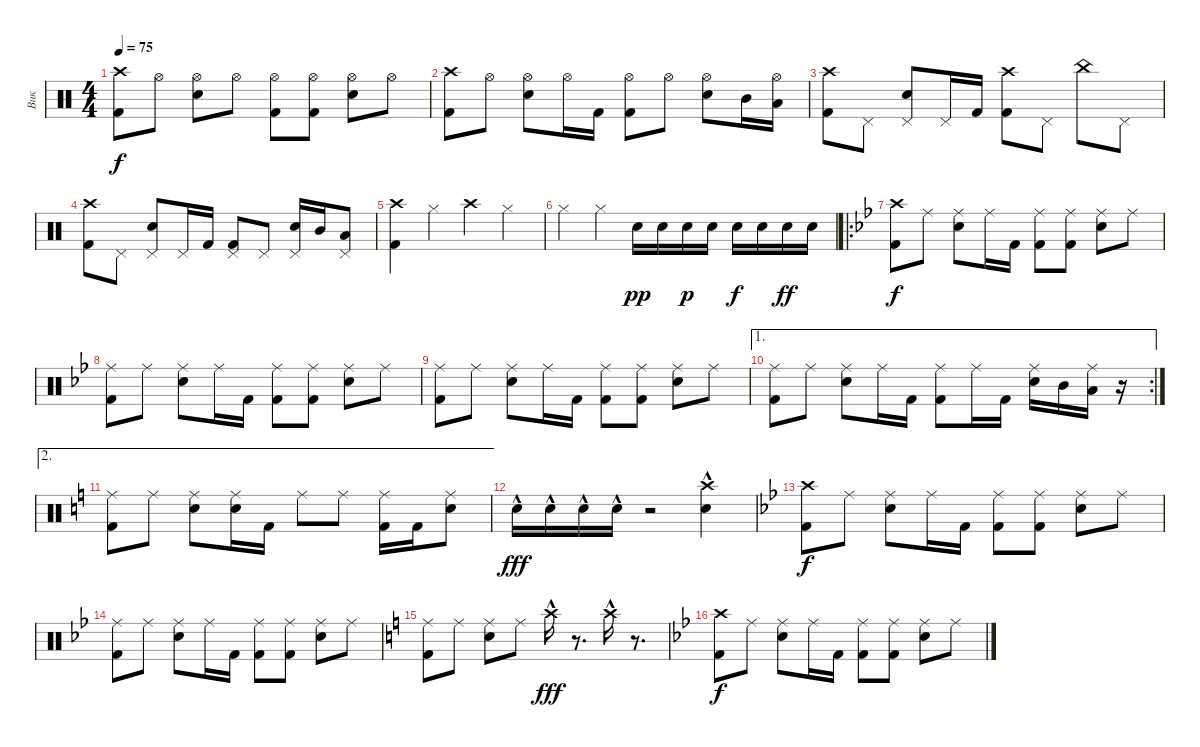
\track ("Вик" "Вик") {instrument percussion}
\staff {score}
\articulation defaults
\ts (4 4)
\tempo 75
\clef neutral
\ks aminor
("Crash high (hit)" "Kick (hit) 2").8{dy f} "Hi-Hat (open)".8 ("Hi-Hat (open)" "Electric Snare (hit)").8 "Hi-Hat (open)".8 ("Hi-Hat (open)" "Kick (hit) 2").8 ("Hi-Hat (open)" "Kick (hit) 2").8 ("Hi-Hat (open)" "Electric Snare (hit)").8 "Hi-Hat (open)".8 |
("Crash high (hit)" "Kick (hit) 2").8 "Hi-Hat (open)".8 ("Hi-Hat (open)" "Electric Snare (hit)").8 "Hi-Hat (open)".16 "Kick (hit) 2".16 ("Hi-Hat (open)" "Kick (hit) 2").8 "Hi-Hat (open)".8 ("Hi-Hat (open)" "Electric Snare (hit)").8 "Mid Tom (hit)".16 ("Hi-Hat (open)" "Low Tom (hit)").16 |
("Crash high (hit)" "Kick (hit) 2").8 "Pedal Hi-Hat (hit)".8 ("Pedal Hi-Hat (hit)" "Electric Snare (hit)").8 "Pedal Hi-Hat (hit)".16 "Kick (hit) 2".16 ("Crash high (hit)" "Kick (hit) 2").8 "Pedal Hi-Hat (hit)".8 "China (hit)".8 "Pedal Hi-Hat (hit)".8 |
("Crash high (hit)" "Kick (hit) 2").8 "Pedal Hi-Hat (hit)".8 ("Pedal Hi-Hat (hit)" "Electric Snare (hit)").8 "Pedal Hi-Hat (hit)".16 "Kick (hit) 2".16 ("Pedal Hi-Hat (hit)" "Kick (hit) 2").8 "Pedal Hi-Hat (hit)".8 ("Pedal Hi-Hat (hit)" "Electric Snare (hit)").16 "Mid Tom (hit)".16 ("Pedal Hi-Hat (hit)" "Low Tom (hit)").8 |
("Crash high (hit)" "Kick (hit) 2").4 "Hi-Hat (closed)".4 "Crash high (hit)".4 "Hi-Hat (closed)".4 |
"Hi-Hat (closed)".4 "Hi-Hat (closed)".4 "Electric Snare (hit)".16{dy pp} "Electric Snare (hit)".16 "Electric Snare (hit)".16{dy p} "Electric Snare (hit)".16 "Electric Snare (hit)".16{dy f} "Electric Snare (hit)".16 "Electric Snare (hit)".16{dy ff} "Electric Snare (hit)".16 |
\ro
\ks gminor
("Crash high (hit)" "Kick (hit) 2").8{dy f} "Ride (middle)".8 ("Ride (middle)" "Electric Snare (hit)").8 "Ride (middle)".16 "Kick (hit) 2".16 ("Ride (middle)" "Kick (hit) 2").8 ("Ride (middle)" "Kick (hit) 2").8 ("Ride (middle)" "Electric Snare (hit)").8 "Ride (middle)".8 |
("Ride (middle)" "Kick (hit) 2").8 "Ride (middle)".8 ("Ride (middle)" "Electric Snare (hit)").8 "Ride (middle)".16 "Kick (hit) 2".16 ("Ride (middle)" "Kick (hit) 2").8 ("Ride (middle)" "Kick (hit) 2").8 ("Ride (middle)" "Electric Snare (hit)").8 "Ride (middle)".8 |
("Ride (middle)" "Kick (hit) 2").8 "Ride (middle)".8 ("Ride (middle)" "Electric Snare (hit)").8 "Ride (middle)".16 "Kick (hit) 2".16 ("Ride (middle)" "Kick (hit) 2").8 ("Ride (middle)" "Kick (hit) 2").8 ("Ride (middle)" "Electric Snare (hit)").8 "Ride (middle)".8 |
\ae 1
\rc 2
("Ride (middle)" "Kick (hit) 2").8 "Ride (middle)".8 ("Ride (middle)" "Electric Snare (hit)").8 "Ride (middle)".16 "Kick (hit) 2".16 ("Ride (middle)" "Kick (hit) 2").8 "Ride (middle)".16 "Kick (hit) 2".16 ("Ride (middle)" "Electric Snare (hit)").16 "Mid Tom (hit)".16 ("Ride (middle)" "Low Tom (hit)").16 r.16 |
\ae 2
\ks aminor
("Ride (middle)" "Kick (hit) 2").8 "Ride (middle)".8 ("Ride (middle)" "Electric Snare (hit)").8 ("Ride (middle)" "Electric Snare (hit)").16 "Kick (hit) 2".16 "Ride (middle)".8 "Ride (middle)".8 ("Ride (middle)" "Kick (hit) 2").16 "Kick (hit) 2".16 ("Ride (middle)" "Electric Snare (hit)").8 |
"Electric Snare (hit)"{hac}.16{dy fff} "Electric Snare (hit)"{hac}.16 "Electric Snare (hit)"{hac}.16 "Electric Snare (hit)"{hac}.16 r.2 ("Crash high (hit)"{hac} "Electric Snare (hit)"{hac}).4 |
\ks gminor
("Crash high (hit)" "Kick (hit) 2").8{dy f} "Ride (middle)".8 ("Ride (middle)" "Electric Snare (hit)").8 "Ride (middle)".16 "Kick (hit) 2".16 ("Ride (middle)" "Kick (hit) 2").8 ("Ride (middle)" "Kick (hit) 2").8 ("Ride (middle)" "Electric Snare (hit)").8 "Ride (middle)".8 |
("Ride (middle)" "Kick (hit) 2").8 "Ride (middle)".8 ("Ride (middle)" "Electric Snare (hit)").8 "Ride (middle)".16 "Kick (hit) 2".16 ("Ride (middle)" "Kick (hit) 2").8 ("Ride (middle)" "Kick (hit) 2").8 ("Ride (middle)" "Electric Snare (hit)").8 "Ride (middle)".8 |
\ks aminor
("Ride (middle)" "Kick (hit) 2").8 "Ride (middle)".8 ("Ride (middle)" "Electric Snare (hit)").8 "Ride (middle)".8 "Crash high (hit)"{hac}.16{dy fff} r.8{d} "Crash high (hit)"{hac}.16 r.8{d} |
\ks gminor
("Crash high (hit)" "Kick (hit) 2").8{dy f} "Ride (middle)".8 ("Ride (middle)" "Electric Snare (hit)").8 "Ride (middle)".16 "Kick (hit) 2".16 ("Ride (middle)" "Kick (hit) 2").8 ("Ride (middle)" "Kick (hit) 2").8 ("Ride (middle)" "Electric Snare (hit)").8 "Ride (middle)".8
